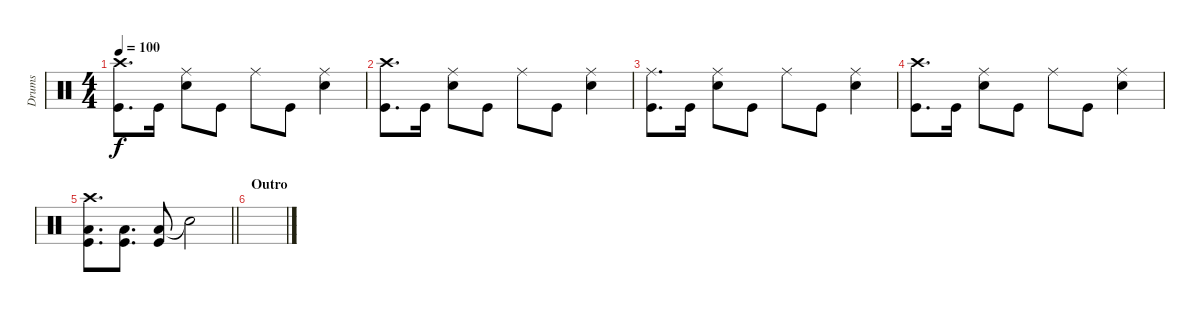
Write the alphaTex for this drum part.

\track ("Drums" "Drums") {instrument percussion}
\staff {score}
\articulation defaults
\ts (4 4)
\tempo 100
\clef neutral
\ks c
("Crash high (hit)" "Kick (hit)").8{d dy f} "Kick (hit)".16 ("Ride (middle)" "Snare (hit) 2").8 "Kick (hit)".8 "Ride (middle)".8 "Kick (hit)".8 ("Ride (middle)" "Snare (hit) 2").4 |
("Crash high (hit)" "Kick (hit)").8{d} "Kick (hit)".16 ("Ride (middle)" "Snare (hit) 2").8 "Kick (hit)".8 "Ride (middle)".8 "Kick (hit)".8 ("Ride (middle)" "Snare (hit) 2").4 |
("Ride (middle)" "Kick (hit)").8{d} "Kick (hit)".16 ("Ride (middle)" "Snare (hit) 2").8 "Kick (hit)".8 "Ride (middle)".8 "Kick (hit)".8 ("Ride (middle)" "Snare (hit) 2").4 |
("Crash high (hit)" "Kick (hit)").8{d} "Kick (hit)".16 ("Ride (middle)" "Snare (hit) 2").8 "Kick (hit)".8 "Ride (middle)".8 "Kick (hit)".8 ("Ride (middle)" "Snare (hit) 2").4 |
\barLineRight lightlight
("Crash high (hit)" "Low Tom (hit)" "Kick (hit)").8{d} ("Low Tom (hit)" "Kick (hit)").8{d} ("Low Tom (hit)" "Kick (hit)").8 "Snare (hit)"{t}.2 |
\section ("" "Outro")
